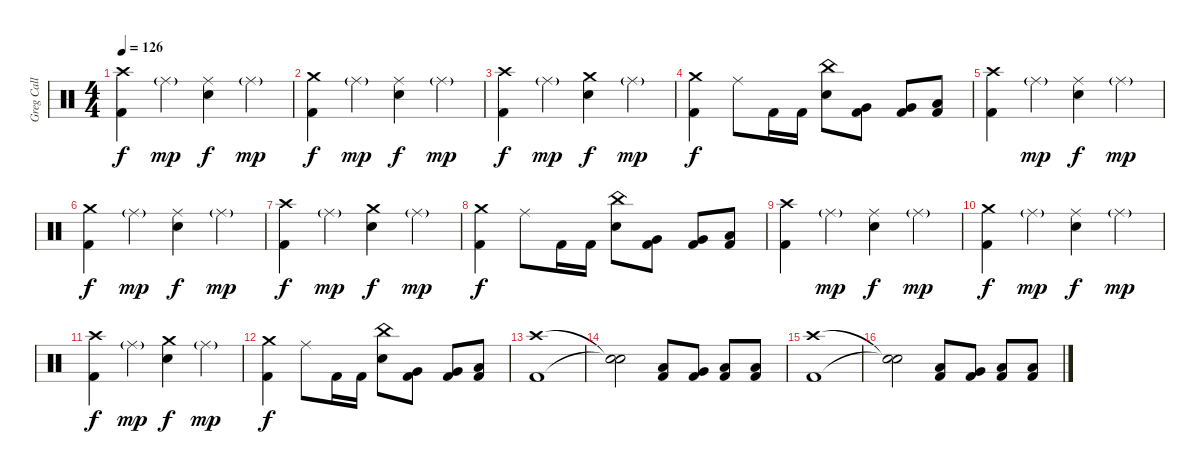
\track ("Greg Call (Drums)" "Greg Call ") {instrument percussion}
\staff {score}
\articulation defaults
\ts (4 4)
\tempo 126
\clef neutral
\ks c
("Crash high (hit)" "Kick (hit) 2").4{dy f} "Ride (middle)"{g}.4{dy mp} ("Ride (middle)" "Snare (hit) 2").4{dy f} "Ride (middle)"{g}.4{dy mp} |
("Crash medium (hit)" "Kick (hit) 2").4{dy f} "Ride (middle)"{g}.4{dy mp} ("Ride (middle)" "Snare (hit) 2").4{dy f} "Ride (middle)"{g}.4{dy mp} |
("Crash high (hit)" "Kick (hit) 2").4{dy f} "Ride (middle)"{g}.4{dy mp} ("Crash medium (hit)" "Snare (hit) 2").4{dy f} "Ride (middle)"{g}.4{dy mp} |
("Crash medium (hit)" "Kick (hit) 2").4{dy f} "Ride (middle)".8 "Kick (hit) 2".16 "Kick (hit) 2".16 ("China (hit)" "Snare (hit) 2").8 ("Very Low Tom (hit)" "Kick (hit) 2").8 ("Very Low Tom (hit)" "Kick (hit) 2").8 ("Low Floor Tom (hit)" "Kick (hit) 2").8 |
("Crash high (hit)" "Kick (hit) 2").4 "Ride (middle)"{g}.4{dy mp} ("Ride (middle)" "Snare (hit) 2").4{dy f} "Ride (middle)"{g}.4{dy mp} |
("Crash medium (hit)" "Kick (hit) 2").4{dy f} "Ride (middle)"{g}.4{dy mp} ("Ride (middle)" "Snare (hit) 2").4{dy f} "Ride (middle)"{g}.4{dy mp} |
("Crash high (hit)" "Kick (hit) 2").4{dy f} "Ride (middle)"{g}.4{dy mp} ("Crash medium (hit)" "Snare (hit) 2").4{dy f} "Ride (middle)"{g}.4{dy mp} |
("Crash medium (hit)" "Kick (hit) 2").4{dy f} "Ride (middle)".8 "Kick (hit) 2".16 "Kick (hit) 2".16 ("China (hit)" "Snare (hit) 2").8 ("Very Low Tom (hit)" "Kick (hit) 2").8 ("Very Low Tom (hit)" "Kick (hit) 2").8 ("Low Floor Tom (hit)" "Kick (hit) 2").8 |
("Crash high (hit)" "Kick (hit) 2").4 "Ride (middle)"{g}.4{dy mp} ("Ride (middle)" "Snare (hit) 2").4{dy f} "Ride (middle)"{g}.4{dy mp} |
("Crash medium (hit)" "Kick (hit) 2").4{dy f} "Ride (middle)"{g}.4{dy mp} ("Ride (middle)" "Snare (hit) 2").4{dy f} "Ride (middle)"{g}.4{dy mp} |
("Crash high (hit)" "Kick (hit) 2").4{dy f} "Ride (middle)"{g}.4{dy mp} ("Crash medium (hit)" "Snare (hit) 2").4{dy f} "Ride (middle)"{g}.4{dy mp} |
("Crash medium (hit)" "Kick (hit) 2").4{dy f} "Ride (middle)".8 "Kick (hit) 2".16 "Kick (hit) 2".16 ("China (hit)" "Snare (hit) 2").8 ("Very Low Tom (hit)" "Kick (hit) 2").8 ("Very Low Tom (hit)" "Kick (hit) 2").8 ("Low Floor Tom (hit)" "Kick (hit) 2").8 |
("Crash high (hit)" "Kick (hit) 2").1 |
("Snare (hit)"{t} "Snare (hit)"{t}).2 ("Low Tom (hit)" "Kick (hit) 2").8 ("Very Low Tom (hit)" "Kick (hit) 2").8 ("Low Floor Tom (hit)" "Kick (hit) 2").8 ("Low Floor Tom (hit)" "Kick (hit) 2").8 |
("Crash high (hit)" "Kick (hit) 2").1 |
("Snare (hit)"{t} "Snare (hit)"{t}).2 ("Low Tom (hit)" "Kick (hit) 2").8 ("Very Low Tom (hit)" "Kick (hit) 2").8 ("Low Floor Tom (hit)" "Kick (hit) 2").8 ("Low Floor Tom (hit)" "Kick (hit) 2").8
